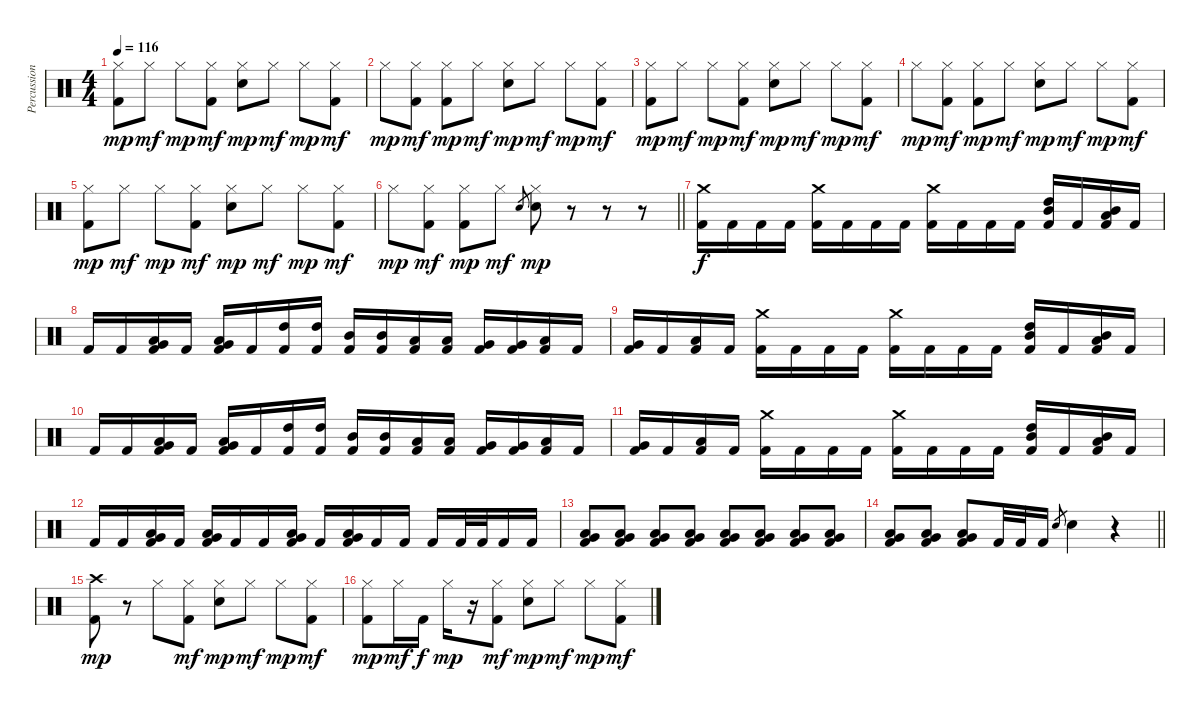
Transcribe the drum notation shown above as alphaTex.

\track ("Percussion (Moose)" "Percussion") {instrument percussion}
\staff {score}
\articulation defaults
\ts (4 4)
\tempo 116
\clef neutral
\ks c
("Kick (hit) 2" "Hi-Hat (closed)").8{dy mp} "Hi-Hat (closed)".8{dy mf} "Hi-Hat (closed)".8{dy mp} ("Kick (hit) 2" "Hi-Hat (closed)").8{dy mf} ("Snare (hit) 2" "Hi-Hat (closed)").8{dy mp} "Hi-Hat (closed)".8{dy mf} "Hi-Hat (closed)".8{dy mp} ("Kick (hit) 2" "Hi-Hat (closed)").8{dy mf} |
"Hi-Hat (closed)".8{dy mp} ("Kick (hit) 2" "Hi-Hat (closed)").8{dy mf} ("Kick (hit) 2" "Hi-Hat (closed)").8{dy mp} "Hi-Hat (closed)".8{dy mf} ("Snare (hit) 2" "Hi-Hat (closed)").8{dy mp} "Hi-Hat (closed)".8{dy mf} "Hi-Hat (closed)".8{dy mp} ("Kick (hit) 2" "Hi-Hat (closed)").8{dy mf} |
("Kick (hit) 2" "Hi-Hat (closed)").8{dy mp} "Hi-Hat (closed)".8{dy mf} "Hi-Hat (closed)".8{dy mp} ("Kick (hit) 2" "Hi-Hat (closed)").8{dy mf} ("Snare (hit) 2" "Hi-Hat (closed)").8{dy mp} "Hi-Hat (closed)".8{dy mf} "Hi-Hat (closed)".8{dy mp} ("Kick (hit) 2" "Hi-Hat (closed)").8{dy mf} |
"Hi-Hat (closed)".8{dy mp} ("Kick (hit) 2" "Hi-Hat (closed)").8{dy mf} ("Kick (hit) 2" "Hi-Hat (closed)").8{dy mp} "Hi-Hat (closed)".8{dy mf} ("Snare (hit) 2" "Hi-Hat (closed)").8{dy mp} "Hi-Hat (closed)".8{dy mf} "Hi-Hat (closed)".8{dy mp} ("Kick (hit) 2" "Hi-Hat (closed)").8{dy mf} |
("Kick (hit) 2" "Hi-Hat (closed)").8{dy mp} "Hi-Hat (closed)".8{dy mf} "Hi-Hat (closed)".8{dy mp} ("Kick (hit) 2" "Hi-Hat (closed)").8{dy mf} ("Snare (hit) 2" "Hi-Hat (closed)").8{dy mp} "Hi-Hat (closed)".8{dy mf} "Hi-Hat (closed)".8{dy mp} ("Kick (hit) 2" "Hi-Hat (closed)").8{dy mf} |
\barLineRight lightlight "Hi-Hat (closed)".8{dy mp}
("Kick (hit) 2" "Hi-Hat (closed)").8{dy mf} ("Kick (hit) 2" "Hi-Hat (closed)").8{dy mp} "Hi-Hat (closed)".8{dy mf} "Snare (hit) 2".8{gr} ("Snare (hit) 2" "Hi-Hat (closed)").8{dy mp} r.8 r.8 r.8 |
("Kick (hit) 2" "Crash medium (hit)").16{dy f} "Kick (hit) 2".16 "Kick (hit) 2".16 "Kick (hit) 2".16 ("Kick (hit) 2" "Crash medium (hit)").16 "Kick (hit) 2".16 "Kick (hit) 2".16 "Kick (hit) 2".16 ("Kick (hit) 2" "Crash medium (hit)").16 "Kick (hit) 2".16 "Kick (hit) 2".16 "Kick (hit) 2".16 ("Kick (hit) 2" "High Tom (hit)" "Mid Tom (hit)").16 "Kick (hit) 2".16 ("Kick (hit) 2" "Mid Tom (hit)" "Low Tom (hit)").16 "Kick (hit) 2".16 |
"Kick (hit) 2".16 "Kick (hit) 2".16 ("Kick (hit) 2" "Low Tom (hit)" "Very Low Tom (hit)").16 "Kick (hit) 2".16 ("Kick (hit) 2" "Very Low Tom (hit)" "Low Floor Tom (hit)").16 "Kick (hit) 2".16 ("Kick (hit) 2" "High Tom (hit)").16 ("Kick (hit) 2" "High Tom (hit)").16 ("Kick (hit) 2" "Mid Tom (hit)").16 ("Kick (hit) 2" "Mid Tom (hit)").16 ("Kick (hit) 2" "Low Tom (hit)").16 ("Kick (hit) 2" "Low Tom (hit)").16 ("Kick (hit) 2" "Very Low Tom (hit)").16 ("Kick (hit) 2" "Very Low Tom (hit)").16 ("Kick (hit) 2" "Low Floor Tom (hit)").16 "Kick (hit) 2".16 |
("Kick (hit) 2" "Very Low Tom (hit)").16 "Kick (hit) 2".16 ("Kick (hit) 2" "Low Floor Tom (hit)").16 "Kick (hit) 2".16 ("Kick (hit) 2" "Crash medium (hit)").16 "Kick (hit) 2".16 "Kick (hit) 2".16 "Kick (hit) 2".16 ("Kick (hit) 2" "Crash medium (hit)").16 "Kick (hit) 2".16 "Kick (hit) 2".16 "Kick (hit) 2".16 ("Kick (hit) 2" "High Tom (hit)" "Mid Tom (hit)").16 "Kick (hit) 2".16 ("Kick (hit) 2" "Mid Tom (hit)" "Low Tom (hit)").16 "Kick (hit) 2".16 |
"Kick (hit) 2".16 "Kick (hit) 2".16 ("Kick (hit) 2" "Low Tom (hit)" "Very Low Tom (hit)").16 "Kick (hit) 2".16 ("Kick (hit) 2" "Very Low Tom (hit)" "Low Floor Tom (hit)").16 "Kick (hit) 2".16 ("Kick (hit) 2" "High Tom (hit)").16 ("Kick (hit) 2" "High Tom (hit)").16 ("Kick (hit) 2" "Mid Tom (hit)").16 ("Kick (hit) 2" "Mid Tom (hit)").16 ("Kick (hit) 2" "Low Tom (hit)").16 ("Kick (hit) 2" "Low Tom (hit)").16 ("Kick (hit) 2" "Very Low Tom (hit)").16 ("Kick (hit) 2" "Very Low Tom (hit)").16 ("Kick (hit) 2" "Low Floor Tom (hit)").16 "Kick (hit) 2".16 |
("Kick (hit) 2" "Very Low Tom (hit)").16 "Kick (hit) 2".16 ("Kick (hit) 2" "Low Floor Tom (hit)").16 "Kick (hit) 2".16 ("Kick (hit) 2" "Crash medium (hit)").16 "Kick (hit) 2".16 "Kick (hit) 2".16 "Kick (hit) 2".16 ("Kick (hit) 2" "Crash medium (hit)").16 "Kick (hit) 2".16 "Kick (hit) 2".16 "Kick (hit) 2".16 ("Kick (hit) 2" "High Tom (hit)" "Mid Tom (hit)").16 "Kick (hit) 2".16 ("Kick (hit) 2" "Mid Tom (hit)" "Low Tom (hit)").16 "Kick (hit) 2".16 |
"Kick (hit) 2".16 "Kick (hit) 2".16 ("Kick (hit) 2" "Low Tom (hit)" "Very Low Tom (hit)").16 "Kick (hit) 2".16 ("Kick (hit) 2" "Very Low Tom (hit)" "Low Floor Tom (hit)").16 "Kick (hit) 2".16 "Kick (hit) 2".16 ("Kick (hit) 2" "Low Tom (hit)" "Very Low Tom (hit)").16 "Kick (hit) 2".16 ("Kick (hit) 2" "Very Low Tom (hit)" "Low Floor Tom (hit)").16 "Kick (hit) 2".16 "Kick (hit) 2".16 "Kick (hit) 2".16 "Kick (hit) 2".32 "Kick (hit) 2".32 "Kick (hit) 2".16 "Kick (hit) 2".16 |
("Kick (hit) 2" "Low Tom (hit)" "Very Low Tom (hit)").8 ("Kick (hit) 2" "Low Tom (hit)" "Very Low Tom (hit)").8 ("Kick (hit) 2" "Low Tom (hit)" "Very Low Tom (hit)").8 ("Kick (hit) 2" "Low Tom (hit)" "Very Low Tom (hit)").8 ("Kick (hit) 2" "Low Tom (hit)" "Very Low Tom (hit)").8 ("Kick (hit) 2" "Low Tom (hit)" "Very Low Tom (hit)").8 ("Kick (hit) 2" "Low Tom (hit)" "Very Low Tom (hit)").8 ("Kick (hit) 2" "Low Tom (hit)" "Very Low Tom (hit)").8 |
\barLineRight lightlight
("Kick (hit) 2" "Low Tom (hit)" "Very Low Tom (hit)").8 ("Kick (hit) 2" "Low Tom (hit)" "Very Low Tom (hit)").8 ("Kick (hit) 2" "Low Tom (hit)" "Very Low Tom (hit)").8 "Kick (hit) 2".32 "Kick (hit) 2".32 "Kick (hit) 2".16 "Snare (hit) 2".8{gr} "Snare (hit) 2".4 r.4 |
("Kick (hit) 2" "Crash high (hit)").8{dy mp} r.8 "Hi-Hat (closed)".8 ("Kick (hit) 2" "Hi-Hat (closed)").8{dy mf} ("Snare (hit) 2" "Hi-Hat (closed)").8{dy mp} "Hi-Hat (closed)".8{dy mf} "Hi-Hat (closed)".8{dy mp} ("Kick (hit) 2" "Hi-Hat (closed)").8{dy mf} |
("Kick (hit) 2" "Hi-Hat (closed)").8{dy mp} "Hi-Hat (closed)".16{dy mf} "Kick (hit) 2".16{dy f} "Hi-Hat (closed)".16{dy mp} r.16 ("Kick (hit) 2" "Hi-Hat (closed)").8{dy mf} ("Snare (hit) 2" "Hi-Hat (closed)").8{dy mp} "Hi-Hat (closed)".8{dy mf} "Hi-Hat (closed)".8{dy mp} ("Kick (hit) 2" "Hi-Hat (closed)").8{dy mf}
